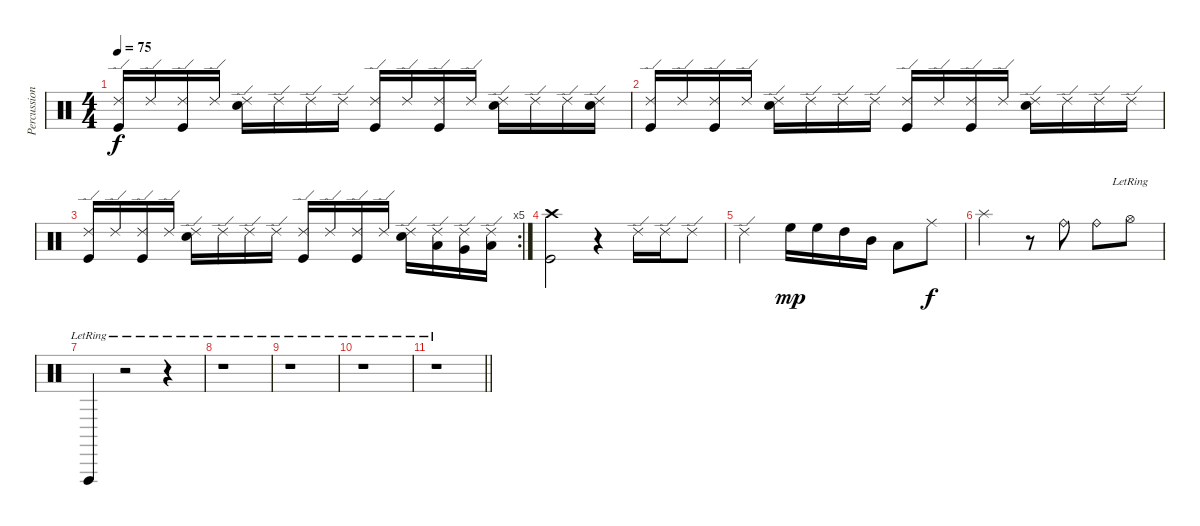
\track ("Percussions" "Percussion") {instrument percussion}
\staff {score}
\articulation defaults
\ts (4 4)
\tempo 75
\clef neutral
\ks c
("Ride (edge) 2" "Kick (hit)").16{dy f} "Ride (edge) 2".16 ("Ride (edge) 2" "Kick (hit)").16 "Ride (edge) 2".16 ("Ride (edge) 2" "Snare (hit) 2").16 "Ride (edge) 2".16 "Ride (edge) 2".16 "Ride (edge) 2".16 ("Ride (edge) 2" "Kick (hit)").16 "Ride (edge) 2".16 ("Ride (edge) 2" "Kick (hit)").16 "Ride (edge) 2".16 ("Ride (edge) 2" "Snare (hit) 2").16 "Ride (edge) 2".16 "Ride (edge) 2".16 ("Ride (edge) 2" "Snare (hit) 2").16 |
("Ride (edge) 2" "Kick (hit)").16 "Ride (edge) 2".16 ("Ride (edge) 2" "Kick (hit)").16 "Ride (edge) 2".16 ("Ride (edge) 2" "Snare (hit) 2").16 "Ride (edge) 2".16 "Ride (edge) 2".16 "Ride (edge) 2".16 ("Ride (edge) 2" "Kick (hit)").16 "Ride (edge) 2".16 ("Ride (edge) 2" "Kick (hit)").16 "Ride (edge) 2".16 ("Ride (edge) 2" "Snare (hit) 2").16 "Ride (edge) 2".16 "Ride (edge) 2".16 "Ride (edge) 2".16 |
\rc 5
("Ride (edge) 2" "Kick (hit)").16 "Ride (edge) 2".16 ("Ride (edge) 2" "Kick (hit)").16 "Ride (edge) 2".16 ("Ride (edge) 2" "Snare (hit) 2").16 "Ride (edge) 2".16 "Ride (edge) 2".16 "Ride (edge) 2".16 ("Ride (edge) 2" "Kick (hit)").16 "Ride (edge) 2".16 ("Ride (edge) 2" "Kick (hit)").16 "Ride (edge) 2".16 ("Ride (edge) 2" "Snare (hit) 2").16 ("Ride (edge) 2" "Low Tom (hit)").16 ("Ride (edge) 2" "Very Low Tom (hit)").16 ("Ride (edge) 2" "Low Floor Tom (hit)").16 |
("Crash high (hit)" "Kick (hit)").2 r.4 "Ride (edge) 2".16 "Ride (edge) 2".16 "Ride (edge) 2".8 |
"Ride (edge) 2".2 "High Floor Tom (hit)".16{dy mp} "High Floor Tom (hit)".16 "High Tom (hit)".16 "Mid Tom (hit)".16 "Low Tom (hit)".8 "Ride (middle)".8{dy f} |
"Splash (hit)".2 r.8 "Ride (bell)".8 "Ride (bell)".8 "Hi-Hat (open)"{lr}.8 |
"Vibraslap (hit)"{lr}.4 r.2 r.4 |
r.1 |
r.1 |
r.1 |
\barLineRight lightlight
r.1
